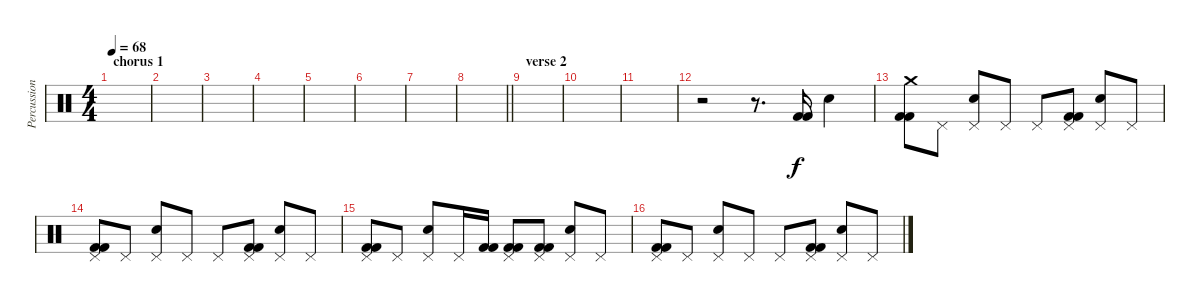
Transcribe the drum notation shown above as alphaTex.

\track ("Percussion" "Percussion") {instrument percussion}
\staff {score}
\articulation defaults
\ts (4 4)
\section ("" "chorus 1")
\tempo 68
\clef neutral
\ks c
|
|
|
|
|
|
|
\barLineRight lightlight
|
\section ("" "verse 2")
|
|
|
r.2 r.8{d} ("Kick (hit) 2" "Kick (hit) 2").16 "Electric Snare (hit)".4 |
("Kick (hit) 2" "Kick (hit) 2" "Crash medium (hit)").8 "Pedal Hi-Hat (hit)".8 ("Electric Snare (hit)" "Pedal Hi-Hat (hit)").8 "Pedal Hi-Hat (hit)".8 "Pedal Hi-Hat (hit)".8 ("Kick (hit) 2" "Kick (hit) 2" "Pedal Hi-Hat (hit)").8 ("Electric Snare (hit)" "Pedal Hi-Hat (hit)").8 "Pedal Hi-Hat (hit)".8 |
("Kick (hit) 2" "Kick (hit) 2" "Pedal Hi-Hat (hit)").8 "Pedal Hi-Hat (hit)".8 ("Electric Snare (hit)" "Pedal Hi-Hat (hit)").8 "Pedal Hi-Hat (hit)".8 "Pedal Hi-Hat (hit)".8 ("Kick (hit) 2" "Kick (hit) 2" "Pedal Hi-Hat (hit)").8 ("Electric Snare (hit)" "Pedal Hi-Hat (hit)").8 "Pedal Hi-Hat (hit)".8 |
("Kick (hit) 2" "Kick (hit) 2" "Pedal Hi-Hat (hit)").8 "Pedal Hi-Hat (hit)".8 ("Electric Snare (hit)" "Pedal Hi-Hat (hit)").8 "Pedal Hi-Hat (hit)".16 ("Kick (hit) 2" "Kick (hit) 2").16 ("Kick (hit) 2" "Kick (hit) 2" "Pedal Hi-Hat (hit)").8 ("Kick (hit) 2" "Kick (hit) 2" "Pedal Hi-Hat (hit)").8 ("Electric Snare (hit)" "Pedal Hi-Hat (hit)").8 "Pedal Hi-Hat (hit)".8 |
("Kick (hit) 2" "Kick (hit) 2" "Pedal Hi-Hat (hit)").8 "Pedal Hi-Hat (hit)".8 ("Electric Snare (hit)" "Pedal Hi-Hat (hit)").8 "Pedal Hi-Hat (hit)".8 "Pedal Hi-Hat (hit)".8 ("Kick (hit) 2" "Kick (hit) 2" "Pedal Hi-Hat (hit)").8 ("Electric Snare (hit)" "Pedal Hi-Hat (hit)").8 "Pedal Hi-Hat (hit)".8
